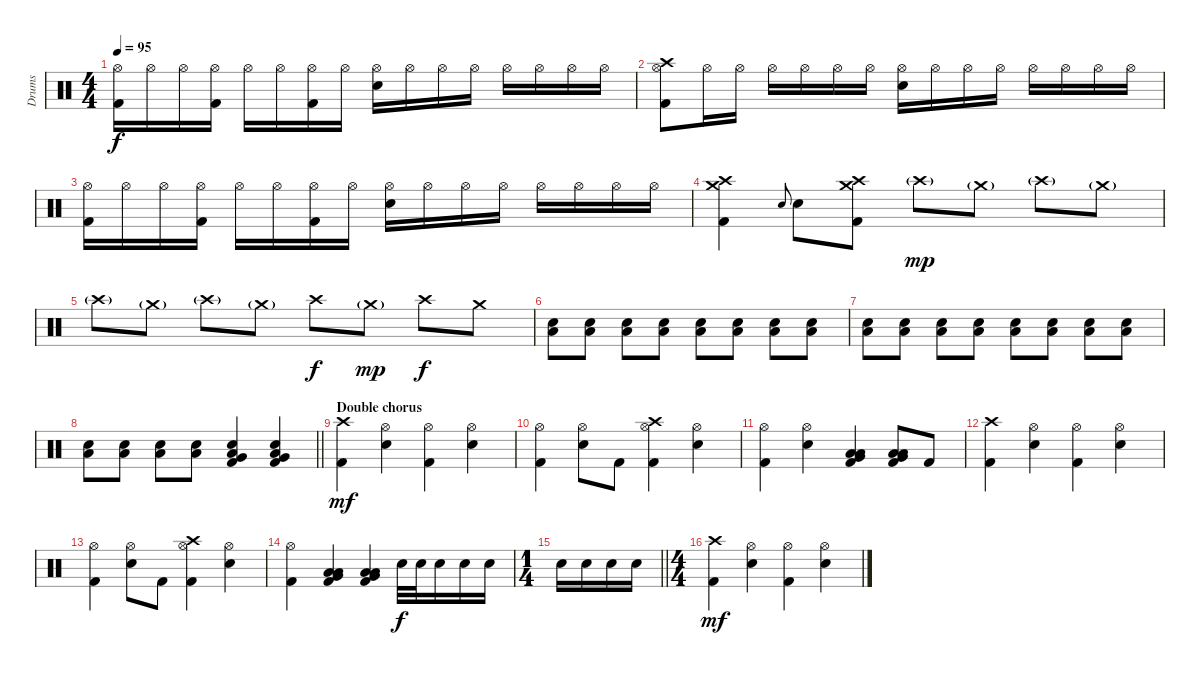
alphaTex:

\track ("Drums" "Drums") {instrument percussion}
\staff {score}
\articulation defaults
\ts (4 4)
\tempo 95
\clef neutral
\ks c
("Hi-Hat (open)" "Kick (hit) 2").16{dy f} "Hi-Hat (open)".16 "Hi-Hat (open)".16 ("Hi-Hat (open)" "Kick (hit) 2").16 "Hi-Hat (open)".16 "Hi-Hat (open)".16 ("Hi-Hat (open)" "Kick (hit) 2").16 "Hi-Hat (open)".16 ("Hi-Hat (open)" "Electric Snare (hit)").16 "Hi-Hat (open)".16 "Hi-Hat (open)".16 "Hi-Hat (open)".16 "Hi-Hat (open)".16 "Hi-Hat (open)".16 "Hi-Hat (open)".16 "Hi-Hat (open)".16 |
("Crash high (hit)" "Hi-Hat (open)" "Kick (hit) 2").8 "Hi-Hat (open)".16 "Hi-Hat (open)".16 "Hi-Hat (open)".16 "Hi-Hat (open)".16 "Hi-Hat (open)".16 "Hi-Hat (open)".16 ("Hi-Hat (open)" "Electric Snare (hit)").16 "Hi-Hat (open)".16 "Hi-Hat (open)".16 "Hi-Hat (open)".16 "Hi-Hat (open)".16 "Hi-Hat (open)".16 "Hi-Hat (open)".16 "Hi-Hat (open)".16 |
("Hi-Hat (open)" "Kick (hit) 2").16 "Hi-Hat (open)".16 "Hi-Hat (open)".16 ("Hi-Hat (open)" "Kick (hit) 2").16 "Hi-Hat (open)".16 "Hi-Hat (open)".16 ("Hi-Hat (open)" "Kick (hit) 2").16 "Hi-Hat (open)".16 ("Hi-Hat (open)" "Electric Snare (hit)").16 "Hi-Hat (open)".16 "Hi-Hat (open)".16 "Hi-Hat (open)".16 "Hi-Hat (open)".16 "Hi-Hat (open)".16 "Hi-Hat (open)".16 "Hi-Hat (open)".16 |
("Crash high (hit)" "Crash medium (hit)" "Kick (hit) 2").4 "Electric Snare (hit)".8{gr onbeat} "Electric Snare (hit)".8 ("Crash high (hit)" "Crash medium (hit)" "Kick (hit) 2").8 "Crash high (hit)"{g}.8{dy mp} "Crash medium (hit)"{g}.8 "Crash high (hit)"{g}.8 "Crash medium (hit)"{g}.8 |
"Crash high (hit)"{g}.8 "Crash medium (hit)"{g}.8 "Crash high (hit)"{g}.8 "Crash medium (hit)"{g}.8 "Crash high (hit)".8{dy f} "Crash medium (hit)"{g}.8{dy mp} "Crash high (hit)".8{dy f} "Crash medium (hit)".8 |
("Electric Snare (hit)" "Low Floor Tom (hit)").8 ("Electric Snare (hit)" "Low Floor Tom (hit)").8 ("Electric Snare (hit)" "Low Floor Tom (hit)").8 ("Electric Snare (hit)" "Low Floor Tom (hit)").8 ("Electric Snare (hit)" "Low Floor Tom (hit)").8 ("Electric Snare (hit)" "Low Floor Tom (hit)").8 ("Electric Snare (hit)" "Low Floor Tom (hit)").8 ("Electric Snare (hit)" "Low Floor Tom (hit)").8 |
("Electric Snare (hit)" "Low Floor Tom (hit)").8 ("Electric Snare (hit)" "Low Floor Tom (hit)").8 ("Electric Snare (hit)" "Low Floor Tom (hit)").8 ("Electric Snare (hit)" "Low Floor Tom (hit)").8 ("Electric Snare (hit)" "Low Floor Tom (hit)").8 ("Electric Snare (hit)" "Low Floor Tom (hit)").8 ("Electric Snare (hit)" "Low Floor Tom (hit)").8 ("Electric Snare (hit)" "Low Floor Tom (hit)").8 |
\barLineRight lightlight
("Electric Snare (hit)" "Low Floor Tom (hit)").8 ("Electric Snare (hit)" "Low Floor Tom (hit)").8 ("Electric Snare (hit)" "Low Floor Tom (hit)").8 ("Electric Snare (hit)" "Low Floor Tom (hit)").8 ("Very Low Tom (hit)" "Electric Snare (hit)" "Low Floor Tom (hit)" "Kick (hit) 2").4 ("Very Low Tom (hit)" "Electric Snare (hit)" "Low Floor Tom (hit)" "Kick (hit) 2").4 |
\section ("" "Double chorus")
("Crash high (hit)" "Kick (hit) 2").4{dy mf} ("Hi-Hat (open)" "Electric Snare (hit)").4 ("Hi-Hat (open)" "Kick (hit) 2").4 ("Hi-Hat (open)" "Electric Snare (hit)").4 |
("Hi-Hat (open)" "Kick (hit) 2").4 ("Hi-Hat (open)" "Electric Snare (hit)").8 "Kick (hit) 2".8 ("Crash high (hit)" "Hi-Hat (open)" "Kick (hit) 2").4 ("Hi-Hat (open)" "Electric Snare (hit)").4 |
("Hi-Hat (open)" "Kick (hit) 2").4 ("Hi-Hat (open)" "Electric Snare (hit)").4 ("Low Floor Tom (hit)" "Very Low Tom (hit)" "Low Tom (hit)" "Kick (hit) 2").4 ("Low Floor Tom (hit)" "Very Low Tom (hit)" "Low Tom (hit)" "Kick (hit) 2").8 "Kick (hit) 2".8 |
("Crash high (hit)" "Kick (hit) 2").4 ("Hi-Hat (open)" "Electric Snare (hit)").4 ("Hi-Hat (open)" "Kick (hit) 2").4 ("Hi-Hat (open)" "Electric Snare (hit)").4 |
("Hi-Hat (open)" "Kick (hit) 2").4 ("Hi-Hat (open)" "Electric Snare (hit)").8 "Kick (hit) 2".8 ("Crash high (hit)" "Hi-Hat (open)" "Kick (hit) 2").4 ("Hi-Hat (open)" "Electric Snare (hit)").4 |
("Hi-Hat (open)" "Kick (hit) 2").4 ("Low Floor Tom (hit)" "Very Low Tom (hit)" "Low Tom (hit)" "Kick (hit) 2").4 ("Low Floor Tom (hit)" "Very Low Tom (hit)" "Low Tom (hit)" "Kick (hit) 2").4 "Electric Snare (hit)".32{dy f} "Electric Snare (hit)".32 "Electric Snare (hit)".16 "Electric Snare (hit)".16 "Electric Snare (hit)".16 |
\ts (1 4)
\barLineRight lightlight "Electric Snare (hit)".16 "Electric Snare (hit)".16 "Electric Snare (hit)".16 "Electric Snare (hit)".16
|
\ts (4 4)
("Crash high (hit)" "Kick (hit) 2").4{dy mf} ("Hi-Hat (open)" "Electric Snare (hit)").4 ("Hi-Hat (open)" "Kick (hit) 2").4 ("Hi-Hat (open)" "Electric Snare (hit)").4
